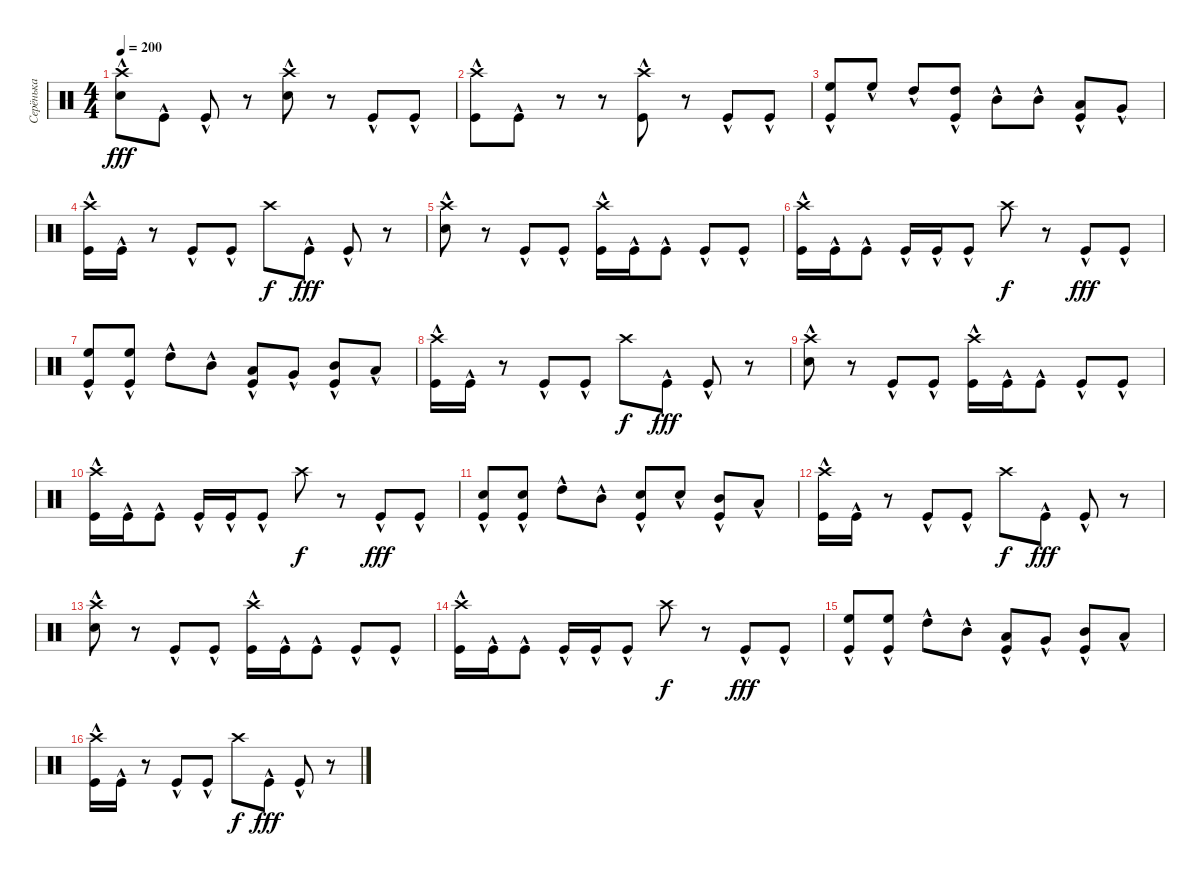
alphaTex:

\track ("Серёнька" "Серёнька") {instrument percussion}
\staff {score}
\articulation defaults
\ts (4 4)
\tempo 200
\clef neutral
\ks c
("Crash high (hit)" "Snare (hit) 2"{hac}).8{dy fff} "Kick (hit)"{hac}.8 "Kick (hit)"{hac}.8 r.8 ("Crash high (hit)" "Snare (hit) 2"{hac}).8 r.8 "Kick (hit)"{hac}.8 "Kick (hit)"{hac}.8 |
("Crash high (hit)" "Kick (hit)"{hac}).8 "Kick (hit)"{hac}.8 r.8 r.8 ("Crash high (hit)" "Kick (hit)"{hac}).8 r.8 "Kick (hit)"{hac}.8 "Kick (hit)"{hac}.8 |
("High Floor Tom (hit)"{hac} "Kick (hit)"{hac}).8 "High Floor Tom (hit)"{hac}.8 "High Tom (hit)"{hac}.8 ("High Tom (hit)"{hac} "Kick (hit)"{hac}).8 "Mid Tom (hit)"{hac}.8 "Mid Tom (hit)"{hac}.8 ("Low Tom (hit)"{hac} "Kick (hit)"{hac}).8 "Very Low Tom (hit)"{hac}.8 |
("Crash high (hit)" "Kick (hit)"{hac}).16 "Kick (hit)"{hac}.16 r.8 "Kick (hit)"{hac}.8 "Kick (hit)"{hac}.8 "Crash high (hit)".8{dy f} "Kick (hit)"{hac}.8{dy fff} "Kick (hit)"{hac}.8 r.8 |
("Crash high (hit)" "Snare (hit) 2"{hac}).8 r.8 "Kick (hit)"{hac}.8 "Kick (hit)"{hac}.8 ("Crash high (hit)" "Kick (hit)"{hac}).16 "Kick (hit)"{hac}.16 "Kick (hit)"{hac}.8 "Kick (hit)"{hac}.8 "Kick (hit)"{hac}.8 |
("Crash high (hit)" "Kick (hit)"{hac}).16 "Kick (hit)"{hac}.16 "Kick (hit)"{hac}.8 "Kick (hit)"{hac}.16 "Kick (hit)"{hac}.16 "Kick (hit)"{hac}.8 "Crash high (hit)".8{dy f} r.8 "Kick (hit)"{hac}.8{dy fff} "Kick (hit)"{hac}.8 |
("High Floor Tom (hit)"{hac} "Kick (hit)"{hac}).8 ("High Floor Tom (hit)"{hac} "Kick (hit)"{hac}).8 "High Tom (hit)"{hac}.8 "Mid Tom (hit)"{hac}.8 ("Low Tom (hit)"{hac} "Kick (hit)"{hac}).8 "Very Low Tom (hit)"{hac}.8 ("Mid Tom (hit)"{hac} "Kick (hit)"{hac}).8 "Low Tom (hit)"{hac}.8 |
("Crash high (hit)" "Kick (hit)"{hac}).16 "Kick (hit)"{hac}.16 r.8 "Kick (hit)"{hac}.8 "Kick (hit)"{hac}.8 "Crash high (hit)".8{dy f} "Kick (hit)"{hac}.8{dy fff} "Kick (hit)"{hac}.8 r.8 |
("Crash high (hit)" "Snare (hit) 2"{hac}).8 r.8 "Kick (hit)"{hac}.8 "Kick (hit)"{hac}.8 ("Crash high (hit)" "Kick (hit)"{hac}).16 "Kick (hit)"{hac}.16 "Kick (hit)"{hac}.8 "Kick (hit)"{hac}.8 "Kick (hit)"{hac}.8 |
("Crash high (hit)" "Kick (hit)"{hac}).16 "Kick (hit)"{hac}.16 "Kick (hit)"{hac}.8 "Kick (hit)"{hac}.16 "Kick (hit)"{hac}.16 "Kick (hit)"{hac}.8 "Crash high (hit)".8{dy f} r.8 "Kick (hit)"{hac}.8{dy fff} "Kick (hit)"{hac}.8 |
("Snare (hit) 2"{hac} "Kick (hit)"{hac}).8 ("Snare (hit) 2"{hac} "Kick (hit)"{hac}).8 "High Tom (hit)"{hac}.8 "Mid Tom (hit)"{hac}.8 ("Snare (hit) 2"{hac} "Kick (hit)"{hac}).8 "Snare (hit) 2"{hac}.8 ("Mid Tom (hit)"{hac} "Kick (hit)"{hac}).8 "Low Tom (hit)"{hac}.8 |
("Crash high (hit)" "Kick (hit)"{hac}).16 "Kick (hit)"{hac}.16 r.8 "Kick (hit)"{hac}.8 "Kick (hit)"{hac}.8 "Crash high (hit)".8{dy f} "Kick (hit)"{hac}.8{dy fff} "Kick (hit)"{hac}.8 r.8 |
("Crash high (hit)" "Snare (hit) 2"{hac}).8 r.8 "Kick (hit)"{hac}.8 "Kick (hit)"{hac}.8 ("Crash high (hit)" "Kick (hit)"{hac}).16 "Kick (hit)"{hac}.16 "Kick (hit)"{hac}.8 "Kick (hit)"{hac}.8 "Kick (hit)"{hac}.8 |
("Crash high (hit)" "Kick (hit)"{hac}).16 "Kick (hit)"{hac}.16 "Kick (hit)"{hac}.8 "Kick (hit)"{hac}.16 "Kick (hit)"{hac}.16 "Kick (hit)"{hac}.8 "Crash high (hit)".8{dy f} r.8 "Kick (hit)"{hac}.8{dy fff} "Kick (hit)"{hac}.8 |
("High Floor Tom (hit)"{hac} "Kick (hit)"{hac}).8 ("High Floor Tom (hit)"{hac} "Kick (hit)"{hac}).8 "High Tom (hit)"{hac}.8 "Mid Tom (hit)"{hac}.8 ("Low Tom (hit)"{hac} "Kick (hit)"{hac}).8 "Very Low Tom (hit)"{hac}.8 ("Mid Tom (hit)"{hac} "Kick (hit)"{hac}).8 "Low Tom (hit)"{hac}.8 |
("Crash high (hit)" "Kick (hit)"{hac}).16 "Kick (hit)"{hac}.16 r.8 "Kick (hit)"{hac}.8 "Kick (hit)"{hac}.8 "Crash high (hit)".8{dy f} "Kick (hit)"{hac}.8{dy fff} "Kick (hit)"{hac}.8 r.8
